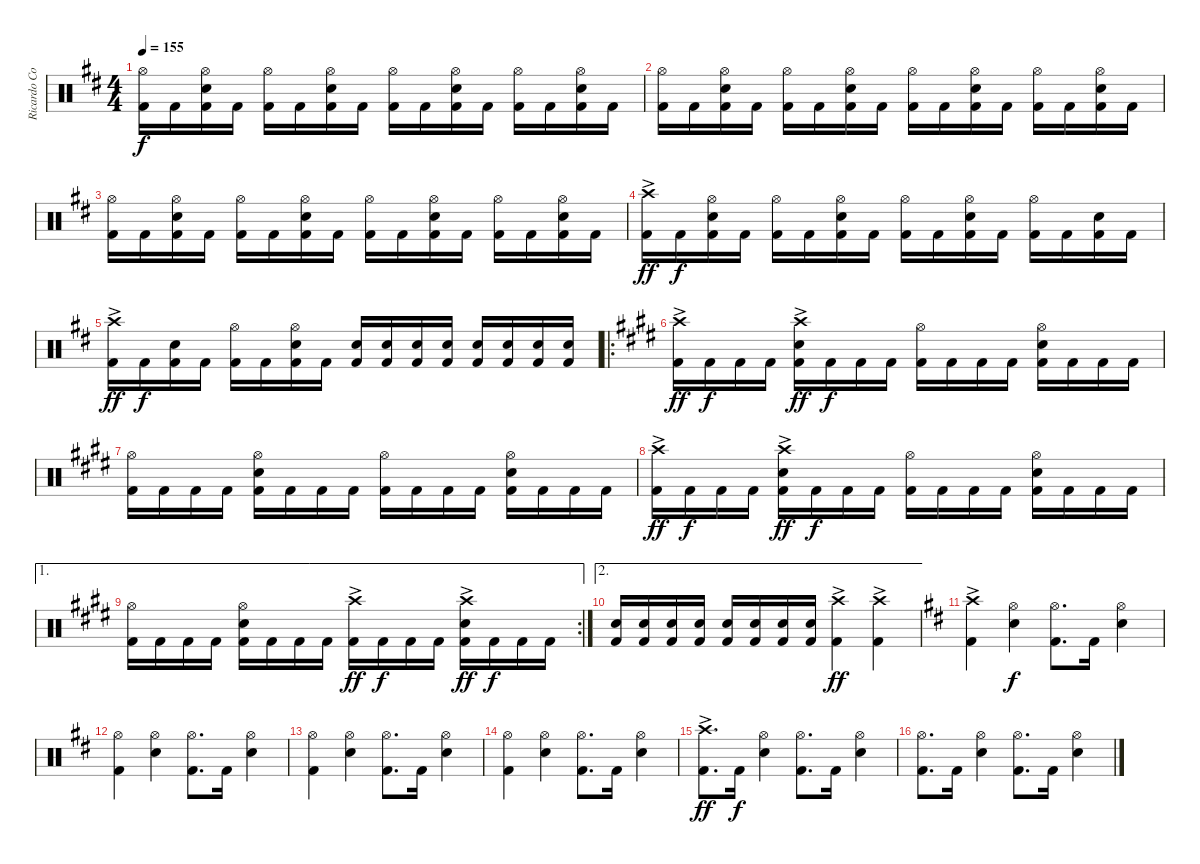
\track ("Ricardo Confessori" "Ricardo Co") {instrument percussion}
\staff {score}
\articulation defaults
\ts (4 4)
\tempo 155
\clef neutral
\ks d
("Hi-Hat (open)" "Kick (hit) 2").16{dy f} "Kick (hit) 2".16 ("Electric Snare (hit)" "Kick (hit) 2" "Hi-Hat (open)").16 "Kick (hit) 2".16 ("Kick (hit) 2" "Hi-Hat (open)").16 "Kick (hit) 2".16 ("Kick (hit) 2" "Hi-Hat (open)" "Electric Snare (hit)").16 "Kick (hit) 2".16 ("Kick (hit) 2" "Hi-Hat (open)").16 "Kick (hit) 2".16 ("Kick (hit) 2" "Hi-Hat (open)" "Electric Snare (hit)").16 "Kick (hit) 2".16 ("Kick (hit) 2" "Hi-Hat (open)").16 "Kick (hit) 2".16 ("Kick (hit) 2" "Hi-Hat (open)" "Electric Snare (hit)").16 "Kick (hit) 2".16 |
("Hi-Hat (open)" "Kick (hit) 2").16 "Kick (hit) 2".16 ("Electric Snare (hit)" "Kick (hit) 2" "Hi-Hat (open)").16 "Kick (hit) 2".16 ("Kick (hit) 2" "Hi-Hat (open)").16 "Kick (hit) 2".16 ("Kick (hit) 2" "Hi-Hat (open)" "Electric Snare (hit)").16 "Kick (hit) 2".16 ("Kick (hit) 2" "Hi-Hat (open)").16 "Kick (hit) 2".16 ("Kick (hit) 2" "Hi-Hat (open)" "Electric Snare (hit)").16 "Kick (hit) 2".16 ("Kick (hit) 2" "Hi-Hat (open)").16 "Kick (hit) 2".16 ("Kick (hit) 2" "Hi-Hat (open)" "Electric Snare (hit)").16 "Kick (hit) 2".16 |
("Hi-Hat (open)" "Kick (hit) 2").16 "Kick (hit) 2".16 ("Electric Snare (hit)" "Kick (hit) 2" "Hi-Hat (open)").16 "Kick (hit) 2".16 ("Kick (hit) 2" "Hi-Hat (open)").16 "Kick (hit) 2".16 ("Kick (hit) 2" "Hi-Hat (open)" "Electric Snare (hit)").16 "Kick (hit) 2".16 ("Kick (hit) 2" "Hi-Hat (open)").16 "Kick (hit) 2".16 ("Kick (hit) 2" "Hi-Hat (open)" "Electric Snare (hit)").16 "Kick (hit) 2".16 ("Kick (hit) 2" "Hi-Hat (open)").16 "Kick (hit) 2".16 ("Kick (hit) 2" "Hi-Hat (open)" "Electric Snare (hit)").16 "Kick (hit) 2".16 |
("Crash high (hit)"{ac} "Kick (hit) 2"{ac}).16{dy ff} "Kick (hit) 2".16{dy f} ("Electric Snare (hit)" "Kick (hit) 2" "Hi-Hat (open)").16 "Kick (hit) 2".16 ("Kick (hit) 2" "Hi-Hat (open)").16 "Kick (hit) 2".16 ("Kick (hit) 2" "Hi-Hat (open)" "Electric Snare (hit)").16 "Kick (hit) 2".16 ("Kick (hit) 2" "Hi-Hat (open)").16 "Kick (hit) 2".16 ("Kick (hit) 2" "Hi-Hat (open)" "Electric Snare (hit)").16 "Kick (hit) 2".16 ("Kick (hit) 2" "Hi-Hat (open)").16 "Kick (hit) 2".16 ("Kick (hit) 2" "Electric Snare (hit)").16 "Kick (hit) 2".16 |
("Crash high (hit)"{ac} "Kick (hit) 2"{ac}).16{dy ff} "Kick (hit) 2".16{dy f} ("Electric Snare (hit)" "Kick (hit) 2").16 "Kick (hit) 2".16 ("Kick (hit) 2" "Hi-Hat (open)").16 "Kick (hit) 2".16 ("Kick (hit) 2" "Hi-Hat (open)" "Electric Snare (hit)").16 "Kick (hit) 2".16 ("Kick (hit) 2" "Electric Snare (hit)").16 ("Kick (hit) 2" "Electric Snare (hit)").16 ("Kick (hit) 2" "Electric Snare (hit)").16 ("Kick (hit) 2" "Electric Snare (hit)").16 ("Kick (hit) 2" "Electric Snare (hit)").16 ("Kick (hit) 2" "Electric Snare (hit)").16 ("Kick (hit) 2" "Electric Snare (hit)").16 ("Kick (hit) 2" "Electric Snare (hit)").16 |
\ro
\ks e
("Crash high (hit)"{ac} "Kick (hit) 2"{ac}).16{dy ff} "Kick (hit) 2".16{dy f} "Kick (hit) 2".16 "Kick (hit) 2".16 ("Kick (hit) 2"{ac} "Electric Snare (hit)"{ac} "Crash high (hit)"{ac}).16{dy ff} "Kick (hit) 2".16{dy f} "Kick (hit) 2".16 "Kick (hit) 2".16 ("Kick (hit) 2" "Hi-Hat (open)").16 "Kick (hit) 2".16 "Kick (hit) 2".16 "Kick (hit) 2".16 ("Kick (hit) 2" "Hi-Hat (open)" "Electric Snare (hit)").16 "Kick (hit) 2".16 "Kick (hit) 2".16 "Kick (hit) 2".16 |
("Hi-Hat (open)" "Kick (hit) 2").16 "Kick (hit) 2".16 "Kick (hit) 2".16 "Kick (hit) 2".16 ("Kick (hit) 2" "Electric Snare (hit)" "Hi-Hat (open)").16 "Kick (hit) 2".16 "Kick (hit) 2".16 "Kick (hit) 2".16 ("Kick (hit) 2" "Hi-Hat (open)").16 "Kick (hit) 2".16 "Kick (hit) 2".16 "Kick (hit) 2".16 ("Kick (hit) 2" "Hi-Hat (open)" "Electric Snare (hit)").16 "Kick (hit) 2".16 "Kick (hit) 2".16 "Kick (hit) 2".16 |
("Crash high (hit)"{ac} "Kick (hit) 2"{ac}).16{dy ff} "Kick (hit) 2".16{dy f} "Kick (hit) 2".16 "Kick (hit) 2".16 ("Kick (hit) 2"{ac} "Electric Snare (hit)"{ac} "Crash high (hit)"{ac}).16{dy ff} "Kick (hit) 2".16{dy f} "Kick (hit) 2".16 "Kick (hit) 2".16 ("Kick (hit) 2" "Hi-Hat (open)").16 "Kick (hit) 2".16 "Kick (hit) 2".16 "Kick (hit) 2".16 ("Kick (hit) 2" "Hi-Hat (open)" "Electric Snare (hit)").16 "Kick (hit) 2".16 "Kick (hit) 2".16 "Kick (hit) 2".16 |
\ae 1
\rc 2
("Hi-Hat (open)" "Kick (hit) 2").16 "Kick (hit) 2".16 "Kick (hit) 2".16 "Kick (hit) 2".16 ("Kick (hit) 2" "Electric Snare (hit)" "Hi-Hat (open)").16 "Kick (hit) 2".16 "Kick (hit) 2".16 "Kick (hit) 2".16 ("Kick (hit) 2" "Crash high (hit)"{ac}).16{dy ff} "Kick (hit) 2".16{dy f} "Kick (hit) 2".16 "Kick (hit) 2".16 ("Kick (hit) 2"{ac} "Crash high (hit)"{ac} "Electric Snare (hit)"{ac}).16{dy ff} "Kick (hit) 2".16{dy f} "Kick (hit) 2".16 "Kick (hit) 2".16 |
\ae 2
("Electric Snare (hit)" "Kick (hit) 2").16 ("Electric Snare (hit)" "Kick (hit) 2").16 ("Electric Snare (hit)" "Kick (hit) 2").16 ("Electric Snare (hit)" "Kick (hit) 2").16 ("Electric Snare (hit)" "Kick (hit) 2").16 ("Electric Snare (hit)" "Kick (hit) 2").16 ("Electric Snare (hit)" "Kick (hit) 2").16 ("Electric Snare (hit)" "Kick (hit) 2").16 ("Kick (hit) 2" "Crash high (hit)"{ac}).4{dy ff} ("Kick (hit) 2"{ac} "Crash high (hit)").4 |
\ks d
("Crash high (hit)"{ac} "Kick (hit) 2"{ac}).4 ("Hi-Hat (open)" "Electric Snare (hit)").4{dy f} ("Hi-Hat (open)" "Kick (hit) 2").8{d} "Kick (hit) 2".16 ("Hi-Hat (open)" "Electric Snare (hit)").4 |
("Hi-Hat (open)" "Kick (hit) 2").4 ("Hi-Hat (open)" "Electric Snare (hit)").4 ("Hi-Hat (open)" "Kick (hit) 2").8{d} "Kick (hit) 2".16 ("Hi-Hat (open)" "Electric Snare (hit)").4 |
("Hi-Hat (open)" "Kick (hit) 2").4 ("Hi-Hat (open)" "Electric Snare (hit)").4 ("Hi-Hat (open)" "Kick (hit) 2").8{d} "Kick (hit) 2".16 ("Hi-Hat (open)" "Electric Snare (hit)").4 |
("Hi-Hat (open)" "Kick (hit) 2").4 ("Hi-Hat (open)" "Electric Snare (hit)").4 ("Hi-Hat (open)" "Kick (hit) 2").8{d} "Kick (hit) 2".16 ("Hi-Hat (open)" "Electric Snare (hit)").4 |
("Crash high (hit)"{ac} "Kick (hit) 2"{ac}).8{d dy ff} "Kick (hit) 2".16{dy f} ("Hi-Hat (open)" "Electric Snare (hit)").4 ("Hi-Hat (open)" "Kick (hit) 2").8{d} "Kick (hit) 2".16 ("Hi-Hat (open)" "Electric Snare (hit)").4 |
("Hi-Hat (open)" "Kick (hit) 2").8{d} "Kick (hit) 2".16 ("Hi-Hat (open)" "Electric Snare (hit)").4 ("Hi-Hat (open)" "Kick (hit) 2").8{d} "Kick (hit) 2".16 ("Hi-Hat (open)" "Electric Snare (hit)").4
